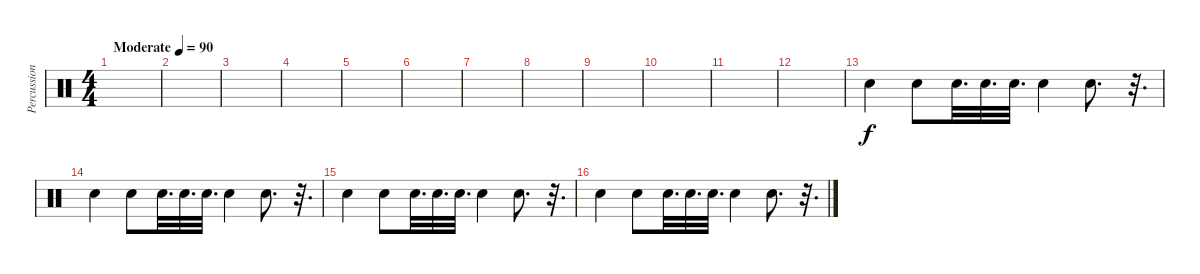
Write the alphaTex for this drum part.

\track ("Percussion" "Percussion") {instrument percussion}
\staff {score}
\articulation defaults
\ts (4 4)
\tempo (90 "Moderate")
\clef neutral
\ks c
|
|
|
|
|
|
|
|
|
|
|
|
"Electric Snare (hit)".4 "Electric Snare (hit)".8 "Electric Snare (hit)".32{d} "Electric Snare (hit)".32{d} "Electric Snare (hit)".32{d} "Electric Snare (hit)".4 "Electric Snare (hit)".8{d} r.32{d} |
"Electric Snare (hit)".4 "Electric Snare (hit)".8 "Electric Snare (hit)".32{d} "Electric Snare (hit)".32{d} "Electric Snare (hit)".32{d} "Electric Snare (hit)".4 "Electric Snare (hit)".8{d} r.32{d} |
"Electric Snare (hit)".4 "Electric Snare (hit)".8 "Electric Snare (hit)".32{d} "Electric Snare (hit)".32{d} "Electric Snare (hit)".32{d} "Electric Snare (hit)".4 "Electric Snare (hit)".8{d} r.32{d} |
"Electric Snare (hit)".4 "Electric Snare (hit)".8 "Electric Snare (hit)".32{d} "Electric Snare (hit)".32{d} "Electric Snare (hit)".32{d} "Electric Snare (hit)".4 "Electric Snare (hit)".8{d} r.32{d}
